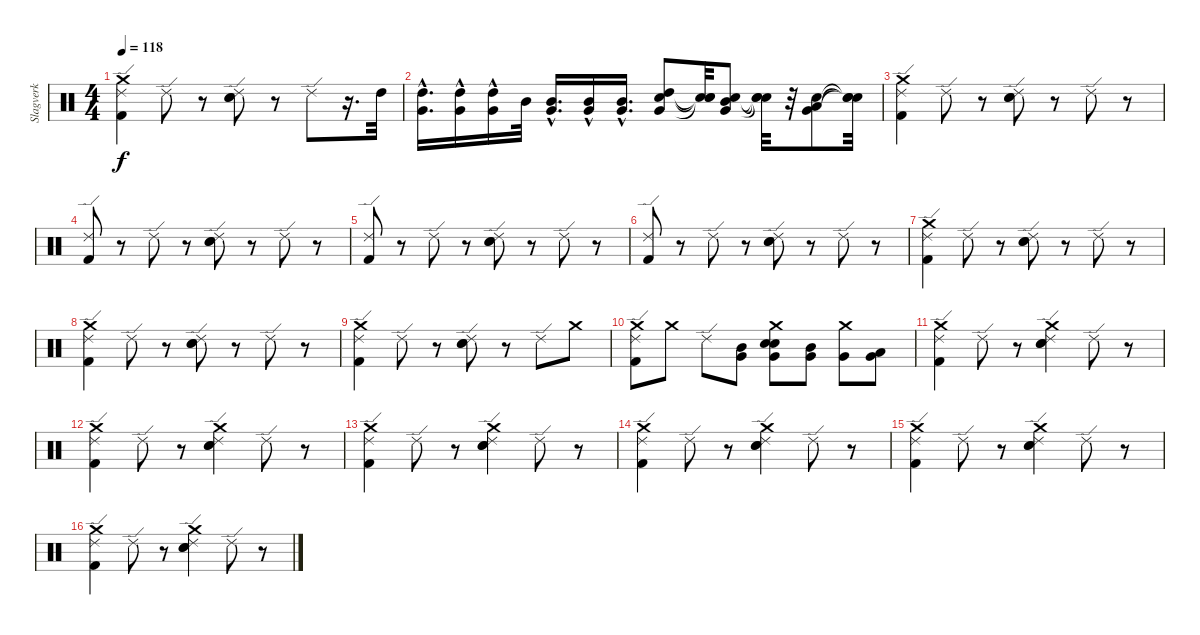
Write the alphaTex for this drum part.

\track ("Slagverk" "Slagverk") {instrument percussion}
\staff {score}
\articulation defaults
\ts (4 4)
\tempo 118
\clef neutral
\ks c
("Crash medium (hit)" "Kick (hit) 2" "Ride (edge) 2").4{dy f} "Ride (edge) 2".8 r.8 ("Electric Snare (hit)" "Snare (hit) 2" "Ride (edge) 2").8 r.8 "Ride (edge) 2".8 r.16{d} "High Tom (hit)".32 |
("Very Low Tom (hit)"{hac} "High Tom (hit)"{hac}).16{d} ("Very Low Tom (hit)"{hac} "High Tom (hit)"{hac}).16 ("Very Low Tom (hit)"{hac} "High Tom (hit)"{hac}).16 "Mid Tom (hit)".32 ("Very Low Tom (hit)"{hac} "Mid Tom (hit)"{hac}).16{d} ("Very Low Tom (hit)"{hac} "Mid Tom (hit)"{hac}).16 ("Very Low Tom (hit)"{hac} "Mid Tom (hit)"{hac}).16{d} ("Very Low Tom (hit)" "High Tom (hit)" "Electric Snare (hit)").8 ("Snare (hit)"{t} "Snare (hit)"{t} "Snare (hit)"{t}).32 ("Very Low Tom (hit)" "Mid Tom (hit)" "Electric Snare (hit)").8 ("Snare (hit)"{t} "Snare (hit)"{t} "Snare (hit)"{t}).32 r.32 ("Very Low Tom (hit)" "Low Tom (hit)" "Electric Snare (hit)").8 ("Snare (hit)"{t} "Snare (hit)"{t} "Snare (hit)"{t}).32 |
("Crash medium (hit)" "Kick (hit) 2" "Ride (edge) 2").4 "Ride (edge) 2".8 r.8 ("Electric Snare (hit)" "Snare (hit) 2" "Ride (edge) 2").8 r.8 "Ride (edge) 2".8 r.8 |
("Kick (hit) 2" "Ride (edge) 2").8 r.8 "Ride (edge) 2".8 r.8 ("Electric Snare (hit)" "Snare (hit) 2" "Ride (edge) 2").8 r.8 "Ride (edge) 2".8 r.8 |
("Kick (hit) 2" "Ride (edge) 2").8 r.8 "Ride (edge) 2".8 r.8 ("Electric Snare (hit)" "Snare (hit) 2" "Ride (edge) 2").8 r.8 "Ride (edge) 2".8 r.8 |
("Kick (hit) 2" "Ride (edge) 2").8 r.8 "Ride (edge) 2".8 r.8 ("Electric Snare (hit)" "Snare (hit) 2" "Ride (edge) 2").8 r.8 "Ride (edge) 2".8 r.8 |
("Crash medium (hit)" "Kick (hit) 2" "Ride (edge) 2").4 "Ride (edge) 2".8 r.8 ("Electric Snare (hit)" "Snare (hit) 2" "Ride (edge) 2").8 r.8 "Ride (edge) 2".8 r.8 |
("Crash medium (hit)" "Kick (hit) 2" "Ride (edge) 2").4 "Ride (edge) 2".8 r.8 ("Electric Snare (hit)" "Snare (hit) 2" "Ride (edge) 2").8 r.8 "Ride (edge) 2".8 r.8 |
("Crash medium (hit)" "Kick (hit) 2" "Ride (edge) 2").4 "Ride (edge) 2".8 r.8 ("Electric Snare (hit)" "Snare (hit) 2" "Ride (edge) 2").8 r.8 "Ride (edge) 2".8 "Crash medium (hit)".8 |
("Crash medium (hit)" "Kick (hit) 2" "Ride (edge) 2").8 "Crash medium (hit)".8 "Ride (edge) 2".8 ("Mid Tom (hit)" "Very Low Tom (hit)").8 ("Crash medium (hit)" "Very Low Tom (hit)" "Electric Snare (hit)" "Snare (hit) 2").8 ("Mid Tom (hit)" "Very Low Tom (hit)").8 ("Crash medium (hit)" "Very Low Tom (hit)").8 ("Low Tom (hit)" "Very Low Tom (hit)").8 |
("Crash medium (hit)" "Kick (hit) 2" "Ride (edge) 2").4 "Ride (edge) 2".8 r.8 ("Crash medium (hit)" "Electric Snare (hit)" "Snare (hit) 2" "Ride (edge) 2").4 "Ride (edge) 2".8 r.8 |
("Crash medium (hit)" "Kick (hit) 2" "Ride (edge) 2").4 "Ride (edge) 2".8 r.8 ("Crash medium (hit)" "Electric Snare (hit)" "Snare (hit) 2" "Ride (edge) 2").4 "Ride (edge) 2".8 r.8 |
("Crash medium (hit)" "Kick (hit) 2" "Ride (edge) 2").4 "Ride (edge) 2".8 r.8 ("Crash medium (hit)" "Electric Snare (hit)" "Snare (hit) 2" "Ride (edge) 2").4 "Ride (edge) 2".8 r.8 |
("Crash medium (hit)" "Kick (hit) 2" "Ride (edge) 2").4 "Ride (edge) 2".8 r.8 ("Crash medium (hit)" "Electric Snare (hit)" "Snare (hit) 2" "Ride (edge) 2").4 "Ride (edge) 2".8 r.8 |
("Crash medium (hit)" "Kick (hit) 2" "Ride (edge) 2").4{volume 12} "Ride (edge) 2".8 r.8 ("Crash medium (hit)" "Electric Snare (hit)" "Snare (hit) 2" "Ride (edge) 2").4{volume 12} "Ride (edge) 2".8 r.8 |
("Crash medium (hit)" "Kick (hit) 2" "Ride (edge) 2").4{volume 12} "Ride (edge) 2".8{volume 11} r.8 ("Crash medium (hit)" "Electric Snare (hit)" "Snare (hit) 2" "Ride (edge) 2").4 "Ride (edge) 2".8{volume 11} r.8
